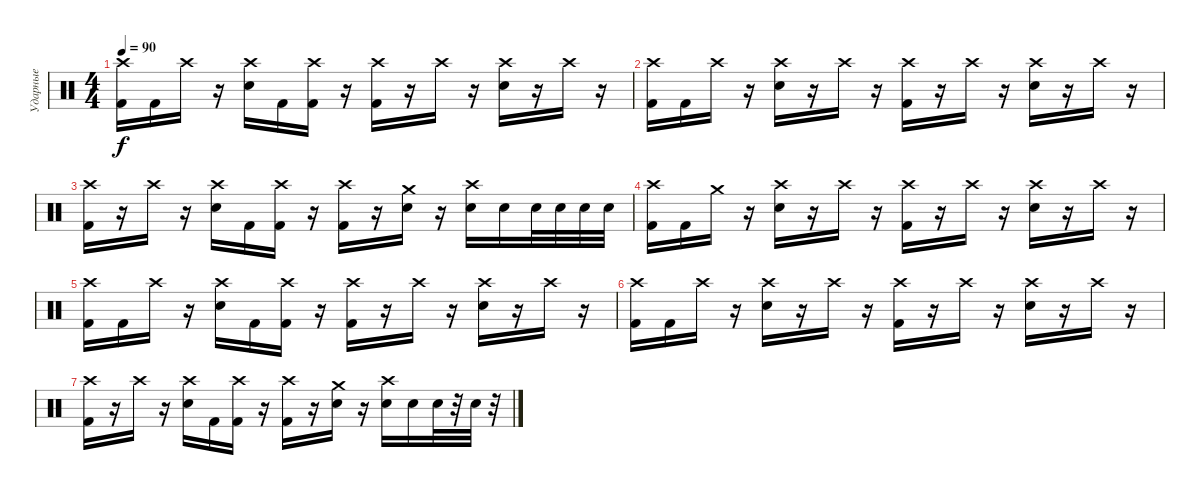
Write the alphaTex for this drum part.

\track ("Ударные" "Ударные") {instrument percussion}
\staff {score}
\articulation defaults
\ts (4 4)
\tempo 90
\clef neutral
\ks c
("Crash high (hit)" "Kick (hit) 2").16{dy f} "Kick (hit) 2".16 "Crash high (hit)".16 r.16 ("Crash high (hit)" "Snare (hit) 2").16 "Kick (hit) 2".16 ("Crash high (hit)" "Kick (hit) 2").16 r.16 ("Crash high (hit)" "Kick (hit) 2").16 r.16 "Crash high (hit)".16 r.16 ("Crash high (hit)" "Snare (hit) 2").16 r.16 "Crash high (hit)".16 r.16 |
("Crash high (hit)" "Kick (hit) 2").16 "Kick (hit) 2".16 "Crash high (hit)".16 r.16 ("Crash high (hit)" "Snare (hit) 2").16 r.16 "Crash high (hit)".16 r.16 ("Crash high (hit)" "Kick (hit) 2").16 r.16 "Crash high (hit)".16 r.16 ("Crash high (hit)" "Snare (hit) 2").16 r.16 "Crash high (hit)".16 r.16 |
("Crash high (hit)" "Kick (hit) 2").16 r.16 "Crash high (hit)".16 r.16 ("Crash high (hit)" "Snare (hit) 2").16 "Kick (hit) 2".16 ("Crash high (hit)" "Kick (hit) 2").16 r.16 ("Crash high (hit)" "Kick (hit) 2").16 r.16 ("Crash medium (hit)" "Snare (hit) 2").16 r.16 ("Crash high (hit)" "Snare (hit) 2").16 "Snare (hit) 2".16 "Snare (hit) 2".32 "Snare (hit) 2".32 "Snare (hit) 2".32 "Snare (hit) 2".32 |
("Crash high (hit)" "Kick (hit) 2").16 "Kick (hit) 2".16 "Crash medium (hit)".16 r.16 ("Crash high (hit)" "Snare (hit) 2").16 r.16 "Crash high (hit)".16 r.16 ("Crash high (hit)" "Kick (hit) 2").16 r.16 "Crash high (hit)".16 r.16 ("Crash high (hit)" "Snare (hit) 2").16 r.16 "Crash high (hit)".16 r.16 |
("Crash high (hit)" "Kick (hit) 2").16 "Kick (hit) 2".16 "Crash high (hit)".16 r.16 ("Crash high (hit)" "Snare (hit) 2").16 "Kick (hit) 2".16 ("Crash high (hit)" "Kick (hit) 2").16 r.16 ("Crash high (hit)" "Kick (hit) 2").16 r.16 "Crash high (hit)".16 r.16 ("Crash high (hit)" "Snare (hit) 2").16 r.16 "Crash high (hit)".16 r.16 |
("Crash high (hit)" "Kick (hit) 2").16 "Kick (hit) 2".16 "Crash high (hit)".16 r.16 ("Crash high (hit)" "Snare (hit) 2").16 r.16 "Crash high (hit)".16 r.16 ("Crash high (hit)" "Kick (hit) 2").16 r.16 "Crash high (hit)".16 r.16 ("Crash high (hit)" "Snare (hit) 2").16 r.16 "Crash high (hit)".16 r.16 |
("Crash high (hit)" "Kick (hit) 2").16 r.16 "Crash high (hit)".16 r.16 ("Crash high (hit)" "Snare (hit) 2").16 "Kick (hit) 2".16 ("Crash high (hit)" "Kick (hit) 2").16 r.16 ("Crash high (hit)" "Kick (hit) 2").16 r.16 ("Crash medium (hit)" "Snare (hit) 2").16 r.16 ("Crash high (hit)" "Snare (hit) 2").16 "Snare (hit) 2".16 "Snare (hit) 2".32 r.32 "Snare (hit) 2".32 r.32
